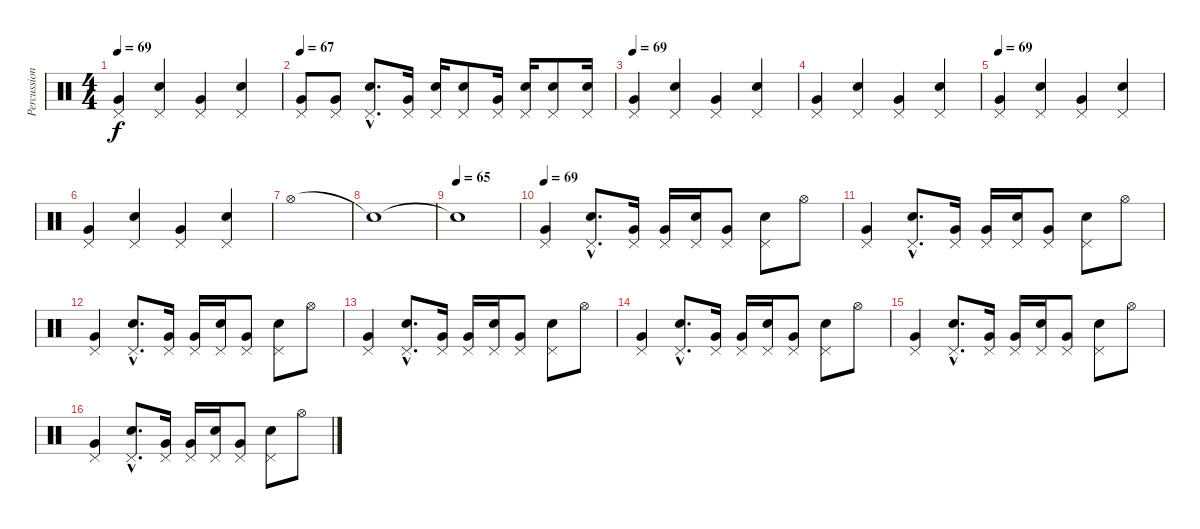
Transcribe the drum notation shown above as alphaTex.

\track ("Percussion" "Percussion") {instrument percussion}
\staff {score}
\articulation defaults
\ts (4 4)
\tempo 69
\clef neutral
\ks c
("Pedal Hi-Hat (hit)" "Very Low Tom (hit)").4{dy f} ("Pedal Hi-Hat (hit)" "Electric Snare (hit)").4 ("Pedal Hi-Hat (hit)" "Very Low Tom (hit)").4 ("Pedal Hi-Hat (hit)" "Electric Snare (hit)").4 |
\tempo 67
("Pedal Hi-Hat (hit)" "Very Low Tom (hit)").8 ("Pedal Hi-Hat (hit)" "Very Low Tom (hit)").8 ("Pedal Hi-Hat (hit)"{hac} "Electric Snare (hit)"{hac}).8{d} ("Pedal Hi-Hat (hit)" "Very Low Tom (hit)").16 ("Pedal Hi-Hat (hit)" "Electric Snare (hit)").16 ("Pedal Hi-Hat (hit)" "Electric Snare (hit)").8 ("Pedal Hi-Hat (hit)" "Very Low Tom (hit)").16 ("Pedal Hi-Hat (hit)" "Electric Snare (hit)").16 ("Pedal Hi-Hat (hit)" "Electric Snare (hit)").8 ("Pedal Hi-Hat (hit)" "Electric Snare (hit)").16 |
\tempo 69
("Pedal Hi-Hat (hit)" "Very Low Tom (hit)").4 ("Pedal Hi-Hat (hit)" "Electric Snare (hit)").4 ("Pedal Hi-Hat (hit)" "Very Low Tom (hit)").4 ("Pedal Hi-Hat (hit)" "Electric Snare (hit)").4 |
("Pedal Hi-Hat (hit)" "Very Low Tom (hit)").4 ("Pedal Hi-Hat (hit)" "Electric Snare (hit)").4 ("Pedal Hi-Hat (hit)" "Very Low Tom (hit)").4 ("Pedal Hi-Hat (hit)" "Electric Snare (hit)").4 |
\tempo 69
("Pedal Hi-Hat (hit)" "Very Low Tom (hit)").4 ("Pedal Hi-Hat (hit)" "Electric Snare (hit)").4 ("Pedal Hi-Hat (hit)" "Very Low Tom (hit)").4 ("Pedal Hi-Hat (hit)" "Electric Snare (hit)").4 |
("Pedal Hi-Hat (hit)" "Very Low Tom (hit)").4 ("Pedal Hi-Hat (hit)" "Electric Snare (hit)").4 ("Pedal Hi-Hat (hit)" "Very Low Tom (hit)").4 ("Pedal Hi-Hat (hit)" "Electric Snare (hit)").4 |
"Hi-Hat (open)".1 |
"Snare (hit)"{t}.1 |
\tempo (65)
"Snare (hit)"{t}.1 |
\tempo 69
("Pedal Hi-Hat (hit)" "Very Low Tom (hit)").4 ("Pedal Hi-Hat (hit)"{hac} "Electric Snare (hit)"{hac}).8{d} ("Pedal Hi-Hat (hit)" "Very Low Tom (hit)").16 ("Pedal Hi-Hat (hit)" "Very Low Tom (hit)").16 ("Pedal Hi-Hat (hit)" "Electric Snare (hit)").16 ("Pedal Hi-Hat (hit)" "Very Low Tom (hit)").8 ("Pedal Hi-Hat (hit)" "Electric Snare (hit)").8 "Hi-Hat (open)".8 |
("Pedal Hi-Hat (hit)" "Very Low Tom (hit)").4 ("Pedal Hi-Hat (hit)"{hac} "Electric Snare (hit)"{hac}).8{d} ("Pedal Hi-Hat (hit)" "Very Low Tom (hit)").16 ("Pedal Hi-Hat (hit)" "Very Low Tom (hit)").16 ("Pedal Hi-Hat (hit)" "Electric Snare (hit)").16 ("Pedal Hi-Hat (hit)" "Very Low Tom (hit)").8 ("Pedal Hi-Hat (hit)" "Electric Snare (hit)").8 "Hi-Hat (open)".8 |
("Pedal Hi-Hat (hit)" "Very Low Tom (hit)").4 ("Pedal Hi-Hat (hit)"{hac} "Electric Snare (hit)"{hac}).8{d} ("Pedal Hi-Hat (hit)" "Very Low Tom (hit)").16 ("Pedal Hi-Hat (hit)" "Very Low Tom (hit)").16 ("Pedal Hi-Hat (hit)" "Electric Snare (hit)").16 ("Pedal Hi-Hat (hit)" "Very Low Tom (hit)").8 ("Pedal Hi-Hat (hit)" "Electric Snare (hit)").8 "Hi-Hat (open)".8 |
("Pedal Hi-Hat (hit)" "Very Low Tom (hit)").4 ("Pedal Hi-Hat (hit)"{hac} "Electric Snare (hit)"{hac}).8{d} ("Pedal Hi-Hat (hit)" "Very Low Tom (hit)").16 ("Pedal Hi-Hat (hit)" "Very Low Tom (hit)").16 ("Pedal Hi-Hat (hit)" "Electric Snare (hit)").16 ("Pedal Hi-Hat (hit)" "Very Low Tom (hit)").8 ("Pedal Hi-Hat (hit)" "Electric Snare (hit)").8 "Hi-Hat (open)".8 |
("Pedal Hi-Hat (hit)" "Very Low Tom (hit)").4 ("Pedal Hi-Hat (hit)"{hac} "Electric Snare (hit)"{hac}).8{d} ("Pedal Hi-Hat (hit)" "Very Low Tom (hit)").16 ("Pedal Hi-Hat (hit)" "Very Low Tom (hit)").16 ("Pedal Hi-Hat (hit)" "Electric Snare (hit)").16 ("Pedal Hi-Hat (hit)" "Very Low Tom (hit)").8 ("Pedal Hi-Hat (hit)" "Electric Snare (hit)").8 "Hi-Hat (open)".8 |
("Pedal Hi-Hat (hit)" "Very Low Tom (hit)").4 ("Pedal Hi-Hat (hit)"{hac} "Electric Snare (hit)"{hac}).8{d} ("Pedal Hi-Hat (hit)" "Very Low Tom (hit)").16 ("Pedal Hi-Hat (hit)" "Very Low Tom (hit)").16 ("Pedal Hi-Hat (hit)" "Electric Snare (hit)").16 ("Pedal Hi-Hat (hit)" "Very Low Tom (hit)").8 ("Pedal Hi-Hat (hit)" "Electric Snare (hit)").8 "Hi-Hat (open)".8 |
("Pedal Hi-Hat (hit)" "Very Low Tom (hit)").4 ("Pedal Hi-Hat (hit)"{hac} "Electric Snare (hit)"{hac}).8{d} ("Pedal Hi-Hat (hit)" "Very Low Tom (hit)").16 ("Pedal Hi-Hat (hit)" "Very Low Tom (hit)").16 ("Pedal Hi-Hat (hit)" "Electric Snare (hit)").16 ("Pedal Hi-Hat (hit)" "Very Low Tom (hit)").8 ("Pedal Hi-Hat (hit)" "Electric Snare (hit)").8 "Hi-Hat (open)".8
